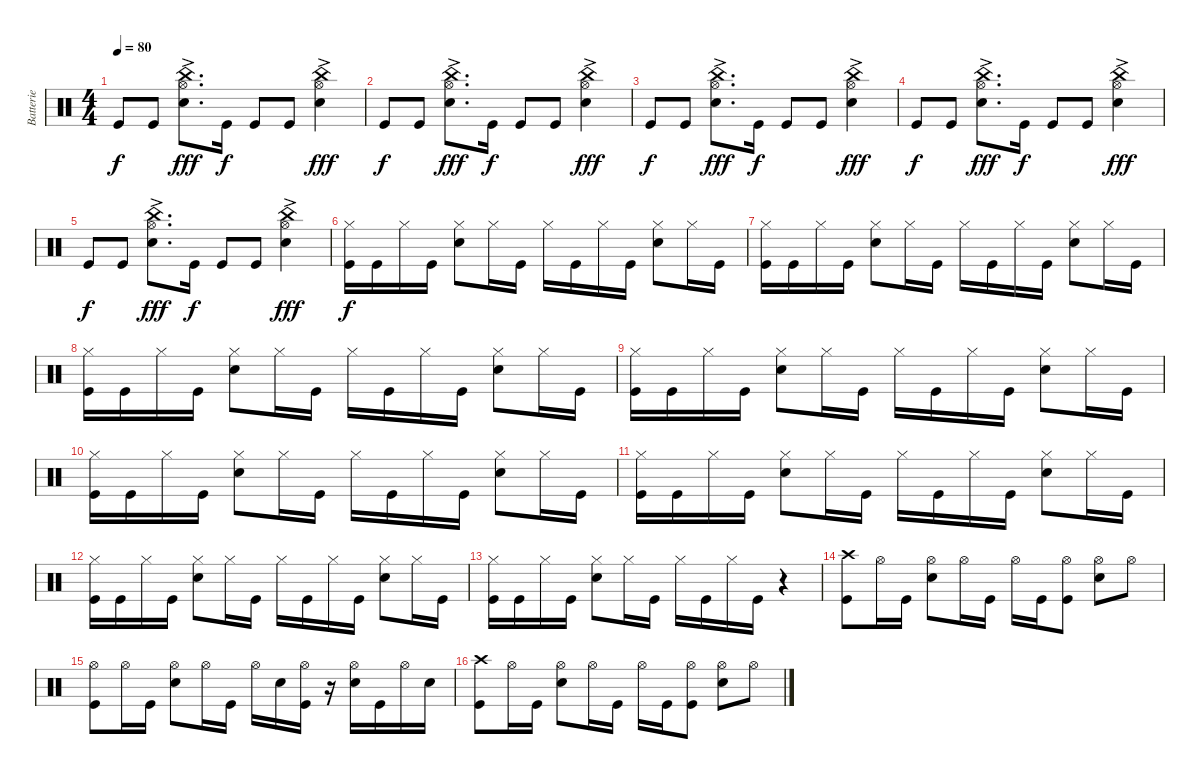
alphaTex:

\track ("Batterie" "Batterie") {instrument percussion}
\staff {score}
\articulation defaults
\ts (4 4)
\tempo 80
\clef neutral
\ks c "Kick (hit)".8{dy f volume 10} "Kick (hit)".8
("Hi-Hat (open)"{ac} "China (hit)"{ac} "Snare (hit) 2").8{d dy fff} "Kick (hit)".16{dy f} "Kick (hit)".8 "Kick (hit)".8 ("Hi-Hat (open)"{ac} "China (hit)" "Snare (hit) 2").4{dy fff} |
"Kick (hit)".8{dy f} "Kick (hit)".8 ("Hi-Hat (open)"{ac} "China (hit)"{ac} "Snare (hit) 2").8{d dy fff} "Kick (hit)".16{dy f} "Kick (hit)".8 "Kick (hit)".8 ("Hi-Hat (open)"{ac} "China (hit)" "Snare (hit) 2").4{dy fff} |
"Kick (hit)".8{dy f} "Kick (hit)".8 ("Hi-Hat (open)"{ac} "China (hit)"{ac} "Snare (hit) 2").8{d dy fff} "Kick (hit)".16{dy f} "Kick (hit)".8 "Kick (hit)".8 ("Hi-Hat (open)"{ac} "China (hit)" "Snare (hit) 2").4{dy fff} |
"Kick (hit)".8{dy f} "Kick (hit)".8 ("Hi-Hat (open)"{ac} "China (hit)"{ac} "Snare (hit) 2").8{d dy fff} "Kick (hit)".16{dy f} "Kick (hit)".8 "Kick (hit)".8 ("Hi-Hat (open)"{ac} "China (hit)" "Snare (hit) 2").4{dy fff} |
"Kick (hit)".8{dy f} "Kick (hit)".8 ("Hi-Hat (open)"{ac} "China (hit)"{ac} "Snare (hit) 2").8{d dy fff} "Kick (hit)".16{dy f} "Kick (hit)".8 "Kick (hit)".8 ("Hi-Hat (open)"{ac} "China (hit)" "Snare (hit) 2").4{dy fff} |
("Hi-Hat (closed)" "Kick (hit)").16{dy f volume 16} "Kick (hit)".16 "Hi-Hat (closed)".16 "Kick (hit)".16 ("Hi-Hat (closed)" "Electric Snare (hit)").8 "Hi-Hat (closed)".16 "Kick (hit)".16 "Hi-Hat (closed)".16 "Kick (hit)".16 "Hi-Hat (closed)".16 "Kick (hit)".16 ("Hi-Hat (closed)" "Electric Snare (hit)").8 "Hi-Hat (closed)".16 "Kick (hit)".16 |
("Hi-Hat (closed)" "Kick (hit)").16{volume 16} "Kick (hit)".16 "Hi-Hat (closed)".16 "Kick (hit)".16 ("Hi-Hat (closed)" "Electric Snare (hit)").8 "Hi-Hat (closed)".16 "Kick (hit)".16 "Hi-Hat (closed)".16 "Kick (hit)".16 "Hi-Hat (closed)".16 "Kick (hit)".16 ("Hi-Hat (closed)" "Electric Snare (hit)").8 "Hi-Hat (closed)".16 "Kick (hit)".16 |
("Hi-Hat (closed)" "Kick (hit)").16{volume 16} "Kick (hit)".16 "Hi-Hat (closed)".16 "Kick (hit)".16 ("Hi-Hat (closed)" "Electric Snare (hit)").8 "Hi-Hat (closed)".16 "Kick (hit)".16 "Hi-Hat (closed)".16 "Kick (hit)".16 "Hi-Hat (closed)".16 "Kick (hit)".16 ("Hi-Hat (closed)" "Electric Snare (hit)").8 "Hi-Hat (closed)".16 "Kick (hit)".16 |
("Hi-Hat (closed)" "Kick (hit)").16{volume 16} "Kick (hit)".16 "Hi-Hat (closed)".16 "Kick (hit)".16 ("Hi-Hat (closed)" "Electric Snare (hit)").8 "Hi-Hat (closed)".16 "Kick (hit)".16 "Hi-Hat (closed)".16 "Kick (hit)".16 "Hi-Hat (closed)".16 "Kick (hit)".16 ("Hi-Hat (closed)" "Electric Snare (hit)").8 "Hi-Hat (closed)".16 "Kick (hit)".16 |
("Hi-Hat (closed)" "Kick (hit)").16{volume 16} "Kick (hit)".16 "Hi-Hat (closed)".16 "Kick (hit)".16 ("Hi-Hat (closed)" "Electric Snare (hit)").8 "Hi-Hat (closed)".16 "Kick (hit)".16 "Hi-Hat (closed)".16 "Kick (hit)".16 "Hi-Hat (closed)".16 "Kick (hit)".16 ("Hi-Hat (closed)" "Electric Snare (hit)").8 "Hi-Hat (closed)".16 "Kick (hit)".16 |
("Hi-Hat (closed)" "Kick (hit)").16{volume 16} "Kick (hit)".16 "Hi-Hat (closed)".16 "Kick (hit)".16 ("Hi-Hat (closed)" "Electric Snare (hit)").8 "Hi-Hat (closed)".16 "Kick (hit)".16 "Hi-Hat (closed)".16 "Kick (hit)".16 "Hi-Hat (closed)".16 "Kick (hit)".16 ("Hi-Hat (closed)" "Electric Snare (hit)").8 "Hi-Hat (closed)".16 "Kick (hit)".16 |
("Hi-Hat (closed)" "Kick (hit)").16{volume 16} "Kick (hit)".16 "Hi-Hat (closed)".16 "Kick (hit)".16 ("Hi-Hat (closed)" "Electric Snare (hit)").8 "Hi-Hat (closed)".16 "Kick (hit)".16 "Hi-Hat (closed)".16 "Kick (hit)".16 "Hi-Hat (closed)".16 "Kick (hit)".16 ("Hi-Hat (closed)" "Electric Snare (hit)").8 "Hi-Hat (closed)".16 "Kick (hit)".16 |
("Hi-Hat (closed)" "Kick (hit)").16{volume 16} "Kick (hit)".16 "Hi-Hat (closed)".16 "Kick (hit)".16 ("Hi-Hat (closed)" "Electric Snare (hit)").8 "Hi-Hat (closed)".16 "Kick (hit)".16 "Hi-Hat (closed)".16 "Kick (hit)".16 "Hi-Hat (closed)".16 "Kick (hit)".16 r.4 |
("Crash high (hit)" "Kick (hit)").8{volume 16} "Hi-Hat (open)".16 "Kick (hit)".16 ("Hi-Hat (open)" "Electric Snare (hit)").8 "Hi-Hat (open)".16 "Kick (hit)".16 "Hi-Hat (open)".16 "Kick (hit)".16 ("Hi-Hat (open)" "Kick (hit)").8 ("Hi-Hat (open)" "Electric Snare (hit)").8 "Hi-Hat (open)".8 |
("Hi-Hat (open)" "Kick (hit)").8 "Hi-Hat (open)".16 "Kick (hit)".16 ("Hi-Hat (open)" "Electric Snare (hit)").8 "Hi-Hat (open)".16 "Kick (hit)".16 "Hi-Hat (open)".16 "Electric Snare (hit)".16 ("Hi-Hat (open)" "Kick (hit)").16 r.16 ("Hi-Hat (open)" "Electric Snare (hit)").16 "Kick (hit)".16 "Hi-Hat (open)".16 "Electric Snare (hit)".16 |
("Crash high (hit)" "Kick (hit)").8{volume 16} "Hi-Hat (open)".16 "Kick (hit)".16 ("Hi-Hat (open)" "Electric Snare (hit)").8 "Hi-Hat (open)".16 "Kick (hit)".16 "Hi-Hat (open)".16 "Kick (hit)".16 ("Hi-Hat (open)" "Kick (hit)").8 ("Hi-Hat (open)" "Electric Snare (hit)").8 "Hi-Hat (open)".8
